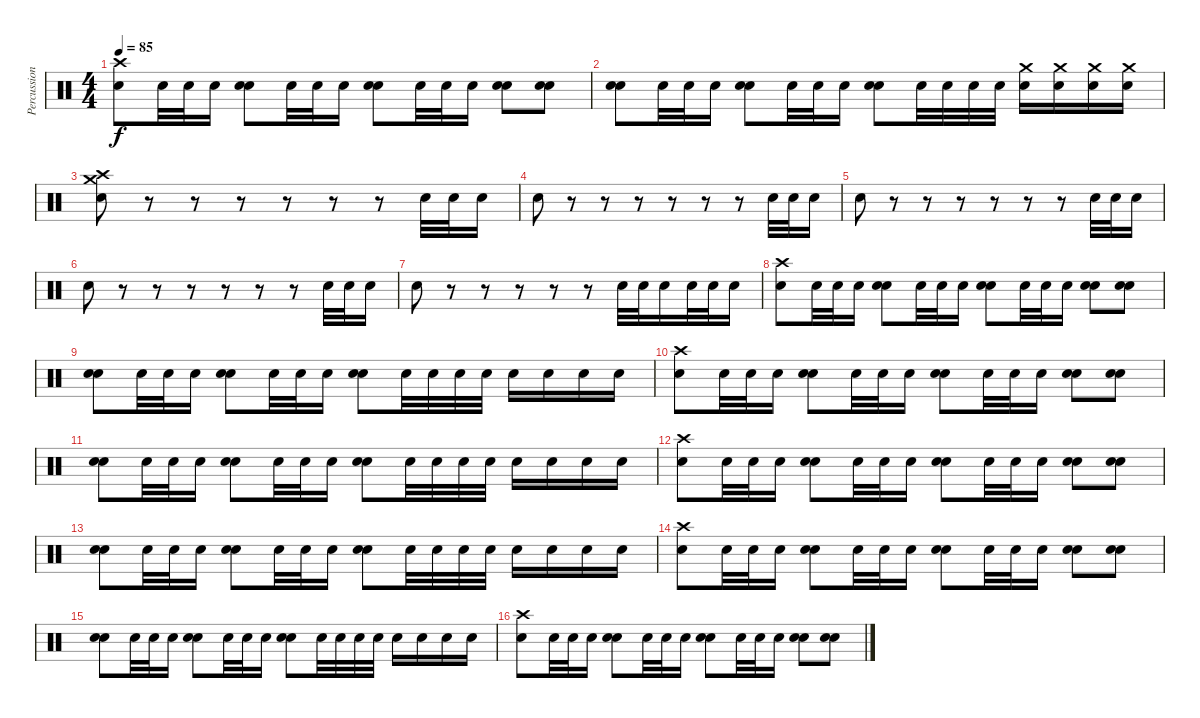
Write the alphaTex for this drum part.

\track ("Percussion" "Percussion") {instrument percussion}
\staff {score}
\articulation defaults
\ts (4 4)
\tempo 85
\clef neutral
\ks c
("Crash high (hit)" "Electric Snare (hit)").8{dy f} "Electric Snare (hit)".32 "Electric Snare (hit)".32 "Electric Snare (hit)".16 ("Electric Snare (hit)" "Electric Snare (hit)").8 "Electric Snare (hit)".32 "Electric Snare (hit)".32 "Electric Snare (hit)".16 ("Electric Snare (hit)" "Electric Snare (hit)").8 "Electric Snare (hit)".32 "Electric Snare (hit)".32 "Electric Snare (hit)".16 ("Electric Snare (hit)" "Electric Snare (hit)").8 ("Electric Snare (hit)" "Electric Snare (hit)").8 |
("Electric Snare (hit)" "Electric Snare (hit)").8 "Electric Snare (hit)".32 "Electric Snare (hit)".32 "Electric Snare (hit)".16 ("Electric Snare (hit)" "Electric Snare (hit)").8 "Electric Snare (hit)".32 "Electric Snare (hit)".32 "Electric Snare (hit)".16 ("Electric Snare (hit)" "Electric Snare (hit)").8 "Electric Snare (hit)".32 "Electric Snare (hit)".32 "Electric Snare (hit)".32 "Electric Snare (hit)".32 ("Crash medium (hit)" "Electric Snare (hit)").16 ("Crash medium (hit)" "Electric Snare (hit)").16 ("Crash medium (hit)" "Electric Snare (hit)").16 ("Crash medium (hit)" "Electric Snare (hit)").16 |
("Crash high (hit)" "Crash medium (hit)" "Electric Snare (hit)").8 r.8 r.8 r.8 r.8 r.8 r.8 "Electric Snare (hit)".32 "Electric Snare (hit)".32 "Electric Snare (hit)".16 |
"Electric Snare (hit)".8 r.8 r.8 r.8 r.8 r.8 r.8 "Electric Snare (hit)".32 "Electric Snare (hit)".32 "Electric Snare (hit)".16 |
"Electric Snare (hit)".8 r.8 r.8 r.8 r.8 r.8 r.8 "Electric Snare (hit)".32 "Electric Snare (hit)".32 "Electric Snare (hit)".16 |
"Electric Snare (hit)".8 r.8 r.8 r.8 r.8 r.8 r.8 "Electric Snare (hit)".32 "Electric Snare (hit)".32 "Electric Snare (hit)".16 |
"Electric Snare (hit)".8 r.8 r.8 r.8 r.8 r.8 "Electric Snare (hit)".32 "Electric Snare (hit)".32 "Electric Snare (hit)".16 "Electric Snare (hit)".32 "Electric Snare (hit)".32 "Electric Snare (hit)".16 |
("Crash high (hit)" "Electric Snare (hit)").8 "Electric Snare (hit)".32 "Electric Snare (hit)".32 "Electric Snare (hit)".16 ("Electric Snare (hit)" "Electric Snare (hit)").8 "Electric Snare (hit)".32 "Electric Snare (hit)".32 "Electric Snare (hit)".16 ("Electric Snare (hit)" "Electric Snare (hit)").8 "Electric Snare (hit)".32 "Electric Snare (hit)".32 "Electric Snare (hit)".16 ("Electric Snare (hit)" "Electric Snare (hit)").8 ("Electric Snare (hit)" "Electric Snare (hit)").8 |
("Electric Snare (hit)" "Electric Snare (hit)").8 "Electric Snare (hit)".32 "Electric Snare (hit)".32 "Electric Snare (hit)".16 ("Electric Snare (hit)" "Electric Snare (hit)").8 "Electric Snare (hit)".32 "Electric Snare (hit)".32 "Electric Snare (hit)".16 ("Electric Snare (hit)" "Electric Snare (hit)").8 "Electric Snare (hit)".32 "Electric Snare (hit)".32 "Electric Snare (hit)".32 "Electric Snare (hit)".32 "Electric Snare (hit)".16 "Electric Snare (hit)".16 "Electric Snare (hit)".16 "Electric Snare (hit)".16 |
("Crash high (hit)" "Electric Snare (hit)").8 "Electric Snare (hit)".32 "Electric Snare (hit)".32 "Electric Snare (hit)".16 ("Electric Snare (hit)" "Electric Snare (hit)").8 "Electric Snare (hit)".32 "Electric Snare (hit)".32 "Electric Snare (hit)".16 ("Electric Snare (hit)" "Electric Snare (hit)").8 "Electric Snare (hit)".32 "Electric Snare (hit)".32 "Electric Snare (hit)".16 ("Electric Snare (hit)" "Electric Snare (hit)").8 ("Electric Snare (hit)" "Electric Snare (hit)").8 |
("Electric Snare (hit)" "Electric Snare (hit)").8 "Electric Snare (hit)".32 "Electric Snare (hit)".32 "Electric Snare (hit)".16 ("Electric Snare (hit)" "Electric Snare (hit)").8 "Electric Snare (hit)".32 "Electric Snare (hit)".32 "Electric Snare (hit)".16 ("Electric Snare (hit)" "Electric Snare (hit)").8 "Electric Snare (hit)".32 "Electric Snare (hit)".32 "Electric Snare (hit)".32 "Electric Snare (hit)".32 "Electric Snare (hit)".16 "Electric Snare (hit)".16 "Electric Snare (hit)".16 "Electric Snare (hit)".16 |
("Crash high (hit)" "Electric Snare (hit)").8 "Electric Snare (hit)".32 "Electric Snare (hit)".32 "Electric Snare (hit)".16 ("Electric Snare (hit)" "Electric Snare (hit)").8 "Electric Snare (hit)".32 "Electric Snare (hit)".32 "Electric Snare (hit)".16 ("Electric Snare (hit)" "Electric Snare (hit)").8 "Electric Snare (hit)".32 "Electric Snare (hit)".32 "Electric Snare (hit)".16 ("Electric Snare (hit)" "Electric Snare (hit)").8 ("Electric Snare (hit)" "Electric Snare (hit)").8 |
("Electric Snare (hit)" "Electric Snare (hit)").8 "Electric Snare (hit)".32 "Electric Snare (hit)".32 "Electric Snare (hit)".16 ("Electric Snare (hit)" "Electric Snare (hit)").8 "Electric Snare (hit)".32 "Electric Snare (hit)".32 "Electric Snare (hit)".16 ("Electric Snare (hit)" "Electric Snare (hit)").8 "Electric Snare (hit)".32 "Electric Snare (hit)".32 "Electric Snare (hit)".32 "Electric Snare (hit)".32 "Electric Snare (hit)".16 "Electric Snare (hit)".16 "Electric Snare (hit)".16 "Electric Snare (hit)".16 |
("Crash high (hit)" "Electric Snare (hit)").8 "Electric Snare (hit)".32 "Electric Snare (hit)".32 "Electric Snare (hit)".16 ("Electric Snare (hit)" "Electric Snare (hit)").8 "Electric Snare (hit)".32 "Electric Snare (hit)".32 "Electric Snare (hit)".16 ("Electric Snare (hit)" "Electric Snare (hit)").8 "Electric Snare (hit)".32 "Electric Snare (hit)".32 "Electric Snare (hit)".16 ("Electric Snare (hit)" "Electric Snare (hit)").8 ("Electric Snare (hit)" "Electric Snare (hit)").8 |
("Electric Snare (hit)" "Electric Snare (hit)").8 "Electric Snare (hit)".32 "Electric Snare (hit)".32 "Electric Snare (hit)".16 ("Electric Snare (hit)" "Electric Snare (hit)").8 "Electric Snare (hit)".32 "Electric Snare (hit)".32 "Electric Snare (hit)".16 ("Electric Snare (hit)" "Electric Snare (hit)").8 "Electric Snare (hit)".32 "Electric Snare (hit)".32 "Electric Snare (hit)".32 "Electric Snare (hit)".32 "Electric Snare (hit)".16 "Electric Snare (hit)".16 "Electric Snare (hit)".16 "Electric Snare (hit)".16 |
("Crash high (hit)" "Electric Snare (hit)").8 "Electric Snare (hit)".32 "Electric Snare (hit)".32 "Electric Snare (hit)".16 ("Electric Snare (hit)" "Electric Snare (hit)").8 "Electric Snare (hit)".32 "Electric Snare (hit)".32 "Electric Snare (hit)".16 ("Electric Snare (hit)" "Electric Snare (hit)").8 "Electric Snare (hit)".32 "Electric Snare (hit)".32 "Electric Snare (hit)".16 ("Electric Snare (hit)" "Electric Snare (hit)").8 ("Electric Snare (hit)" "Electric Snare (hit)").8
